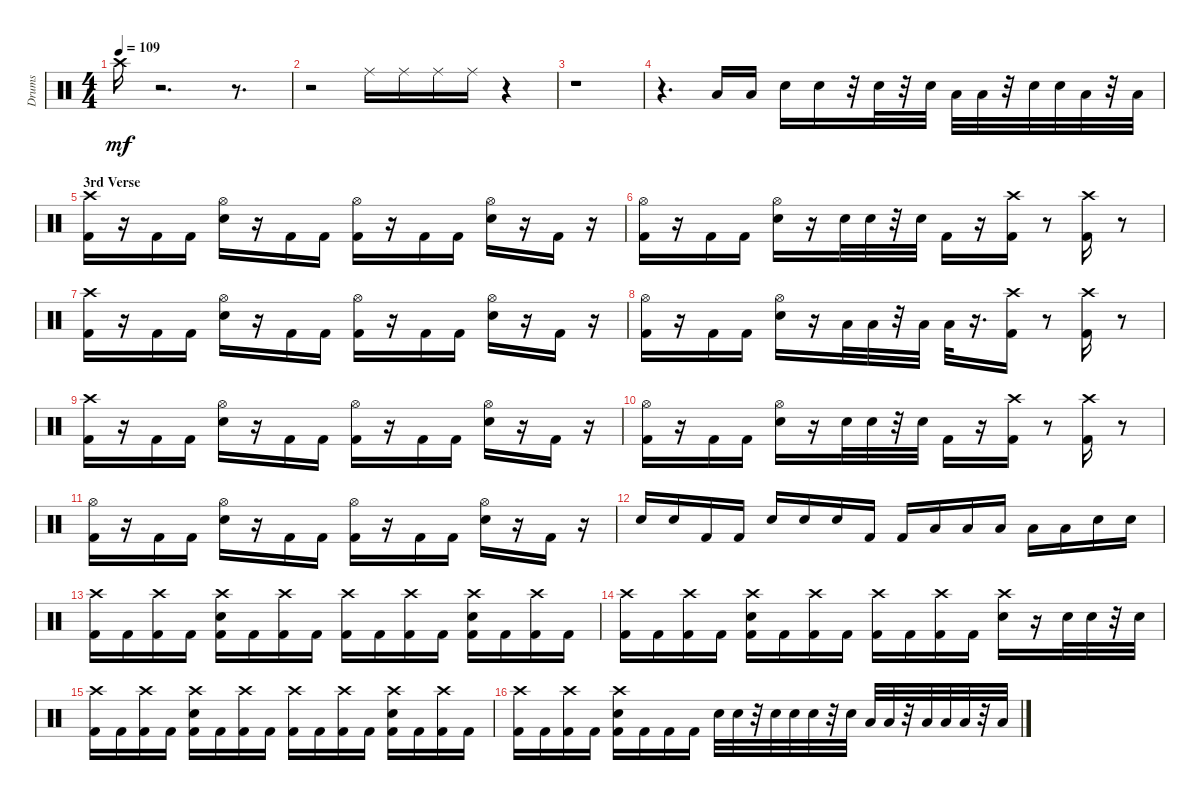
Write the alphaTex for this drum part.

\track ("Drums" "Drums") {instrument percussion}
\staff {score}
\articulation defaults
\ts (4 4)
\tempo 109
\clef neutral
\ks c "Crash high (hit)".16{dy mf}
r.2{d} r.8{d} |
r.2 "Ride (middle)".16 "Ride (middle)".16 "Ride (middle)".16 "Ride (middle)".16 r.4 |
r.1 |
r.4{d} "Low Floor Tom (hit)".16 "Low Floor Tom (hit)".16 "Snare (hit) 2".16 "Snare (hit) 2".16 r.32 "Snare (hit) 2".32 r.32 "Snare (hit) 2".32 "Low Tom (hit)".32 "Low Tom (hit)".32 r.32 "Snare (hit) 2".32 "Snare (hit) 2".32 "Low Floor Tom (hit)".32 r.32 "Low Floor Tom (hit)".32 |
\section ("" "3rd Verse")
("Kick (hit) 2" "Crash high (hit)").16 r.16 "Kick (hit) 2".16 "Kick (hit) 2".16 ("Snare (hit) 2" "Hi-Hat (open)").16 r.16 "Kick (hit) 2".16 "Kick (hit) 2".16 ("Kick (hit) 2" "Hi-Hat (open)").16 r.16 "Kick (hit) 2".16 "Kick (hit) 2".16 ("Snare (hit) 2" "Hi-Hat (open)").16 r.16 "Kick (hit) 2".16 r.16 |
("Kick (hit) 2" "Hi-Hat (open)").16 r.16 "Kick (hit) 2".16 "Kick (hit) 2".16 ("Snare (hit) 2" "Hi-Hat (open)").16 r.16 "Snare (hit) 2".32 "Snare (hit) 2".32 r.32 "Snare (hit) 2".32 "Kick (hit) 2".16 r.16 ("Kick (hit) 2" "Crash high (hit)").16 r.8 ("Kick (hit) 2" "Crash high (hit)").16 r.8 |
("Crash high (hit)" "Kick (hit) 2").16 r.16 "Kick (hit) 2".16 "Kick (hit) 2".16 ("Snare (hit) 2" "Hi-Hat (open)").16 r.16 "Kick (hit) 2".16 "Kick (hit) 2".16 ("Kick (hit) 2" "Hi-Hat (open)").16 r.16 "Kick (hit) 2".16 "Kick (hit) 2".16 ("Snare (hit) 2" "Hi-Hat (open)").16 r.16 "Kick (hit) 2".16 r.16 |
("Kick (hit) 2" "Hi-Hat (open)").16 r.16 "Kick (hit) 2".16 "Kick (hit) 2".16 ("Snare (hit) 2" "Hi-Hat (open)").16 r.16 "Low Tom (hit)".32 "Low Tom (hit)".32 r.32 "Low Tom (hit)".32 "Low Tom (hit)".32 r.16{d} ("Kick (hit) 2" "Crash high (hit)").16 r.8 ("Kick (hit) 2" "Crash high (hit)").16 r.8 |
("Crash high (hit)" "Kick (hit) 2").16 r.16 "Kick (hit) 2".16 "Kick (hit) 2".16 ("Snare (hit) 2" "Hi-Hat (open)").16 r.16 "Kick (hit) 2".16 "Kick (hit) 2".16 ("Kick (hit) 2" "Hi-Hat (open)").16 r.16 "Kick (hit) 2".16 "Kick (hit) 2".16 ("Snare (hit) 2" "Hi-Hat (open)").16 r.16 "Kick (hit) 2".16 r.16 |
("Kick (hit) 2" "Hi-Hat (open)").16 r.16 "Kick (hit) 2".16 "Kick (hit) 2".16 ("Snare (hit) 2" "Hi-Hat (open)").16 r.16 "Snare (hit) 2".32 "Snare (hit) 2".32 r.32 "Snare (hit) 2".32 "Kick (hit) 2".16 r.16 ("Kick (hit) 2" "Crash high (hit)").16 r.8 ("Kick (hit) 2" "Crash high (hit)").16 r.8 |
("Kick (hit) 2" "Hi-Hat (open)").16 r.16 "Kick (hit) 2".16 "Kick (hit) 2".16 ("Snare (hit) 2" "Hi-Hat (open)").16 r.16 "Kick (hit) 2".16 "Kick (hit) 2".16 ("Kick (hit) 2" "Hi-Hat (open)").16 r.16 "Kick (hit) 2".16 "Kick (hit) 2".16 ("Snare (hit) 2" "Hi-Hat (open)").16 r.16 "Kick (hit) 2".16 r.16 |
"Snare (hit) 2".16 "Snare (hit) 2".16 "Kick (hit) 2".16 "Kick (hit) 2".16 "Snare (hit) 2".16 "Snare (hit) 2".16 "Snare (hit) 2".16 "Kick (hit) 2".16 "Kick (hit) 2".16 "Low Tom (hit)".16 "Low Tom (hit)".16 "Low Tom (hit)".16 "Low Floor Tom (hit)".16 "Low Floor Tom (hit)".16 "Snare (hit) 2".16 "Snare (hit) 2".16 |
("Crash high (hit)" "Kick (hit) 2").16 "Kick (hit) 2".16 ("Kick (hit) 2" "Crash high (hit)").16 "Kick (hit) 2".16 ("Crash high (hit)" "Snare (hit) 2" "Kick (hit) 2").16 "Kick (hit) 2".16 ("Kick (hit) 2" "Crash high (hit)").16 "Kick (hit) 2".16 ("Crash high (hit)" "Kick (hit) 2").16 "Kick (hit) 2".16 ("Kick (hit) 2" "Crash high (hit)").16 "Kick (hit) 2".16 ("Crash high (hit)" "Snare (hit) 2" "Kick (hit) 2").16 "Kick (hit) 2".16 ("Kick (hit) 2" "Crash high (hit)").16 "Kick (hit) 2".16 |
("Crash high (hit)" "Kick (hit) 2").16 "Kick (hit) 2".16 ("Kick (hit) 2" "Crash high (hit)").16 "Kick (hit) 2".16 ("Crash high (hit)" "Snare (hit) 2" "Kick (hit) 2").16 "Kick (hit) 2".16 ("Kick (hit) 2" "Crash high (hit)").16 "Kick (hit) 2".16 ("Crash high (hit)" "Kick (hit) 2").16 "Kick (hit) 2".16 ("Kick (hit) 2" "Crash high (hit)").16 "Kick (hit) 2".16 ("Snare (hit) 2" "Crash high (hit)").16 r.16 "Snare (hit) 2".32 "Snare (hit) 2".32 r.32 "Snare (hit) 2".32 |
("Crash high (hit)" "Kick (hit) 2").16 "Kick (hit) 2".16 ("Kick (hit) 2" "Crash high (hit)").16 "Kick (hit) 2".16 ("Crash high (hit)" "Snare (hit) 2" "Kick (hit) 2").16 "Kick (hit) 2".16 ("Kick (hit) 2" "Crash high (hit)").16 "Kick (hit) 2".16 ("Crash high (hit)" "Kick (hit) 2").16 "Kick (hit) 2".16 ("Kick (hit) 2" "Crash high (hit)").16 "Kick (hit) 2".16 ("Crash high (hit)" "Snare (hit) 2" "Kick (hit) 2").16 "Kick (hit) 2".16 ("Kick (hit) 2" "Crash high (hit)").16 "Kick (hit) 2".16 |
("Crash high (hit)" "Kick (hit) 2").16 "Kick (hit) 2".16 ("Kick (hit) 2" "Crash high (hit)").16 "Kick (hit) 2".16 ("Snare (hit) 2" "Crash high (hit)" "Kick (hit) 2").16 "Kick (hit) 2".16 "Kick (hit) 2".16 "Kick (hit) 2".16 "Snare (hit) 2".32 "Snare (hit) 2".32 r.32 "Snare (hit) 2".32 "Snare (hit) 2".32 "Snare (hit) 2".32 r.32 "Snare (hit) 2".32 "Low Tom (hit)".32 "Low Tom (hit)".32 r.32 "Low Tom (hit)".32 "Low Floor Tom (hit)".32 "Low Floor Tom (hit)".32 r.32 "Low Floor Tom (hit)".32
